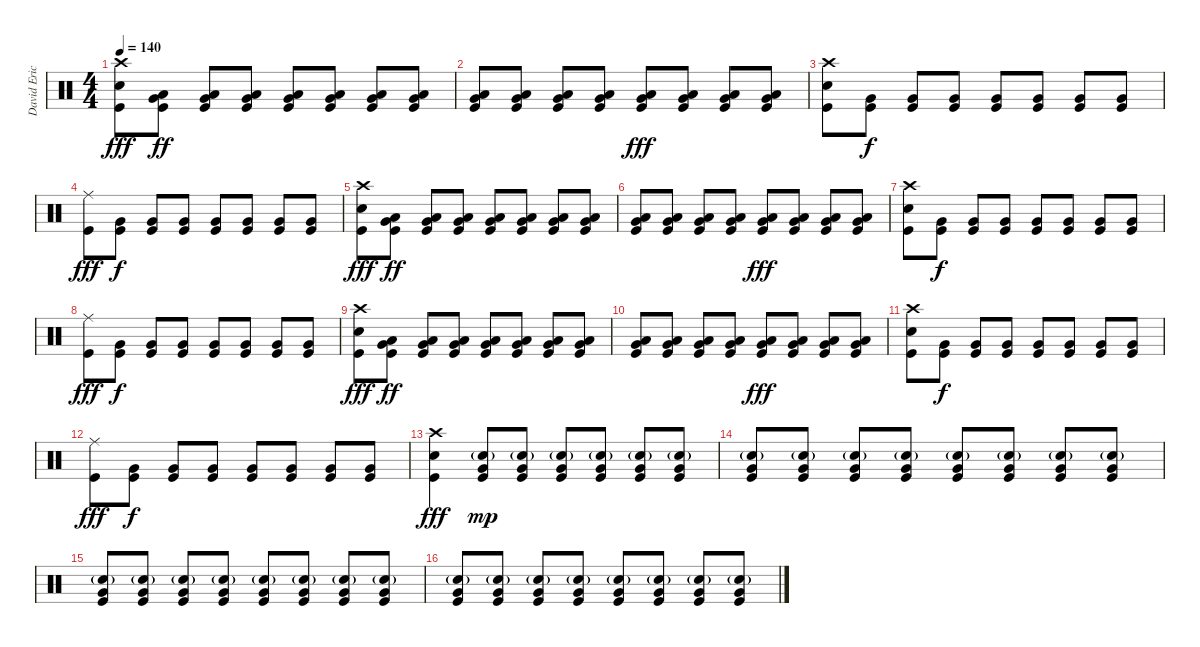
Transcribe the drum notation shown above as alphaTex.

\track ("David Eric Grohl" "David Eric") {instrument percussion}
\staff {score}
\articulation defaults
\ts (4 4)
\tempo 140
\clef neutral
\ks c
("Crash high (hit)" "Electric Snare (hit)" "Kick (hit)").8{dy fff} ("Low Tom (hit)" "Very Low Tom (hit)" "Kick (hit)").8{dy ff} ("Low Tom (hit)" "Very Low Tom (hit)" "Kick (hit)").8 ("Low Tom (hit)" "Very Low Tom (hit)" "Kick (hit)").8 ("Low Tom (hit)" "Very Low Tom (hit)" "Kick (hit)").8 ("Low Tom (hit)" "Very Low Tom (hit)" "Kick (hit)").8 ("Low Tom (hit)" "Very Low Tom (hit)" "Kick (hit)").8 ("Low Tom (hit)" "Very Low Tom (hit)" "Kick (hit)").8 |
("Low Tom (hit)" "Very Low Tom (hit)" "Kick (hit)").8 ("Low Tom (hit)" "Very Low Tom (hit)" "Kick (hit)").8 ("Low Tom (hit)" "Very Low Tom (hit)" "Kick (hit)").8 ("Low Tom (hit)" "Very Low Tom (hit)" "Kick (hit)").8 ("Low Tom (hit)" "Very Low Tom (hit)" "Kick (hit)").8{dy fff} ("Low Tom (hit)" "Very Low Tom (hit)" "Kick (hit)").8 ("Low Tom (hit)" "Very Low Tom (hit)" "Kick (hit)").8 ("Low Tom (hit)" "Very Low Tom (hit)" "Kick (hit)").8 |
("Crash high (hit)" "Electric Snare (hit)" "Kick (hit)").8 ("Very Low Tom (hit)" "Kick (hit)").8{dy f} ("Very Low Tom (hit)" "Kick (hit)").8 ("Very Low Tom (hit)" "Kick (hit)").8 ("Very Low Tom (hit)" "Kick (hit)").8 ("Very Low Tom (hit)" "Kick (hit)").8 ("Very Low Tom (hit)" "Kick (hit)").8 ("Very Low Tom (hit)" "Kick (hit)").8 |
("Ride (middle)" "Kick (hit)").8{dy fff} ("Very Low Tom (hit)" "Kick (hit)").8{dy f} ("Very Low Tom (hit)" "Kick (hit)").8 ("Very Low Tom (hit)" "Kick (hit)").8 ("Very Low Tom (hit)" "Kick (hit)").8 ("Very Low Tom (hit)" "Kick (hit)").8 ("Very Low Tom (hit)" "Kick (hit)").8 ("Very Low Tom (hit)" "Kick (hit)").8 |
("Crash high (hit)" "Electric Snare (hit)" "Kick (hit)").8{dy fff} ("Low Tom (hit)" "Very Low Tom (hit)" "Kick (hit)").8{dy ff} ("Low Tom (hit)" "Very Low Tom (hit)" "Kick (hit)").8 ("Low Tom (hit)" "Very Low Tom (hit)" "Kick (hit)").8 ("Low Tom (hit)" "Very Low Tom (hit)" "Kick (hit)").8 ("Low Tom (hit)" "Very Low Tom (hit)" "Kick (hit)").8 ("Low Tom (hit)" "Very Low Tom (hit)" "Kick (hit)").8 ("Low Tom (hit)" "Very Low Tom (hit)" "Kick (hit)").8 |
("Low Tom (hit)" "Very Low Tom (hit)" "Kick (hit)").8 ("Low Tom (hit)" "Very Low Tom (hit)" "Kick (hit)").8 ("Low Tom (hit)" "Very Low Tom (hit)" "Kick (hit)").8 ("Low Tom (hit)" "Very Low Tom (hit)" "Kick (hit)").8 ("Low Tom (hit)" "Very Low Tom (hit)" "Kick (hit)").8{dy fff} ("Low Tom (hit)" "Very Low Tom (hit)" "Kick (hit)").8 ("Low Tom (hit)" "Very Low Tom (hit)" "Kick (hit)").8 ("Low Tom (hit)" "Very Low Tom (hit)" "Kick (hit)").8 |
("Crash high (hit)" "Electric Snare (hit)" "Kick (hit)").8 ("Very Low Tom (hit)" "Kick (hit)").8{dy f} ("Very Low Tom (hit)" "Kick (hit)").8 ("Very Low Tom (hit)" "Kick (hit)").8 ("Very Low Tom (hit)" "Kick (hit)").8 ("Very Low Tom (hit)" "Kick (hit)").8 ("Very Low Tom (hit)" "Kick (hit)").8 ("Very Low Tom (hit)" "Kick (hit)").8 |
("Ride (middle)" "Kick (hit)").8{dy fff} ("Very Low Tom (hit)" "Kick (hit)").8{dy f} ("Very Low Tom (hit)" "Kick (hit)").8 ("Very Low Tom (hit)" "Kick (hit)").8 ("Very Low Tom (hit)" "Kick (hit)").8 ("Very Low Tom (hit)" "Kick (hit)").8 ("Very Low Tom (hit)" "Kick (hit)").8 ("Very Low Tom (hit)" "Kick (hit)").8 |
("Crash high (hit)" "Electric Snare (hit)" "Kick (hit)").8{dy fff} ("Low Tom (hit)" "Very Low Tom (hit)" "Kick (hit)").8{dy ff} ("Low Tom (hit)" "Very Low Tom (hit)" "Kick (hit)").8 ("Low Tom (hit)" "Very Low Tom (hit)" "Kick (hit)").8 ("Low Tom (hit)" "Very Low Tom (hit)" "Kick (hit)").8 ("Low Tom (hit)" "Very Low Tom (hit)" "Kick (hit)").8 ("Low Tom (hit)" "Very Low Tom (hit)" "Kick (hit)").8 ("Low Tom (hit)" "Very Low Tom (hit)" "Kick (hit)").8 |
("Low Tom (hit)" "Very Low Tom (hit)" "Kick (hit)").8 ("Low Tom (hit)" "Very Low Tom (hit)" "Kick (hit)").8 ("Low Tom (hit)" "Very Low Tom (hit)" "Kick (hit)").8 ("Low Tom (hit)" "Very Low Tom (hit)" "Kick (hit)").8 ("Low Tom (hit)" "Very Low Tom (hit)" "Kick (hit)").8{dy fff} ("Low Tom (hit)" "Very Low Tom (hit)" "Kick (hit)").8 ("Low Tom (hit)" "Very Low Tom (hit)" "Kick (hit)").8 ("Low Tom (hit)" "Very Low Tom (hit)" "Kick (hit)").8 |
("Crash high (hit)" "Electric Snare (hit)" "Kick (hit)").8 ("Very Low Tom (hit)" "Kick (hit)").8{dy f} ("Very Low Tom (hit)" "Kick (hit)").8 ("Very Low Tom (hit)" "Kick (hit)").8 ("Very Low Tom (hit)" "Kick (hit)").8 ("Very Low Tom (hit)" "Kick (hit)").8 ("Very Low Tom (hit)" "Kick (hit)").8 ("Very Low Tom (hit)" "Kick (hit)").8 |
("Ride (middle)" "Kick (hit)").8{dy fff} ("Very Low Tom (hit)" "Kick (hit)").8{dy f} ("Very Low Tom (hit)" "Kick (hit)").8 ("Very Low Tom (hit)" "Kick (hit)").8 ("Very Low Tom (hit)" "Kick (hit)").8 ("Very Low Tom (hit)" "Kick (hit)").8 ("Very Low Tom (hit)" "Kick (hit)").8 ("Very Low Tom (hit)" "Kick (hit)").8 |
("Crash high (hit)" "Electric Snare (hit)" "Kick (hit)").4{dy fff} ("Electric Snare (hit)"{g} "Very Low Tom (hit)" "Kick (hit)").8{dy mp} ("Electric Snare (hit)"{g} "Very Low Tom (hit)" "Kick (hit)").8 ("Electric Snare (hit)"{g} "Very Low Tom (hit)" "Kick (hit)").8 ("Electric Snare (hit)"{g} "Very Low Tom (hit)" "Kick (hit)").8 ("Electric Snare (hit)"{g} "Very Low Tom (hit)" "Kick (hit)").8 ("Electric Snare (hit)"{g} "Very Low Tom (hit)" "Kick (hit)").8 |
("Electric Snare (hit)"{g} "Very Low Tom (hit)" "Kick (hit)").8 ("Electric Snare (hit)"{g} "Very Low Tom (hit)" "Kick (hit)").8 ("Electric Snare (hit)"{g} "Very Low Tom (hit)" "Kick (hit)").8 ("Electric Snare (hit)"{g} "Very Low Tom (hit)" "Kick (hit)").8 ("Electric Snare (hit)"{g} "Very Low Tom (hit)" "Kick (hit)").8 ("Electric Snare (hit)"{g} "Very Low Tom (hit)" "Kick (hit)").8 ("Electric Snare (hit)"{g} "Very Low Tom (hit)" "Kick (hit)").8 ("Electric Snare (hit)"{g} "Very Low Tom (hit)" "Kick (hit)").8 |
("Electric Snare (hit)"{g} "Very Low Tom (hit)" "Kick (hit)").8 ("Electric Snare (hit)"{g} "Very Low Tom (hit)" "Kick (hit)").8 ("Electric Snare (hit)"{g} "Very Low Tom (hit)" "Kick (hit)").8 ("Electric Snare (hit)"{g} "Very Low Tom (hit)" "Kick (hit)").8 ("Electric Snare (hit)"{g} "Very Low Tom (hit)" "Kick (hit)").8 ("Electric Snare (hit)"{g} "Very Low Tom (hit)" "Kick (hit)").8 ("Electric Snare (hit)"{g} "Very Low Tom (hit)" "Kick (hit)").8 ("Electric Snare (hit)"{g} "Very Low Tom (hit)" "Kick (hit)").8 |
("Electric Snare (hit)"{g} "Very Low Tom (hit)" "Kick (hit)").8 ("Electric Snare (hit)"{g} "Very Low Tom (hit)" "Kick (hit)").8 ("Electric Snare (hit)"{g} "Very Low Tom (hit)" "Kick (hit)").8 ("Electric Snare (hit)"{g} "Very Low Tom (hit)" "Kick (hit)").8 ("Electric Snare (hit)"{g} "Very Low Tom (hit)" "Kick (hit)").8 ("Electric Snare (hit)"{g} "Very Low Tom (hit)" "Kick (hit)").8 ("Electric Snare (hit)"{g} "Very Low Tom (hit)" "Kick (hit)").8 ("Electric Snare (hit)"{g} "Very Low Tom (hit)" "Kick (hit)").8
